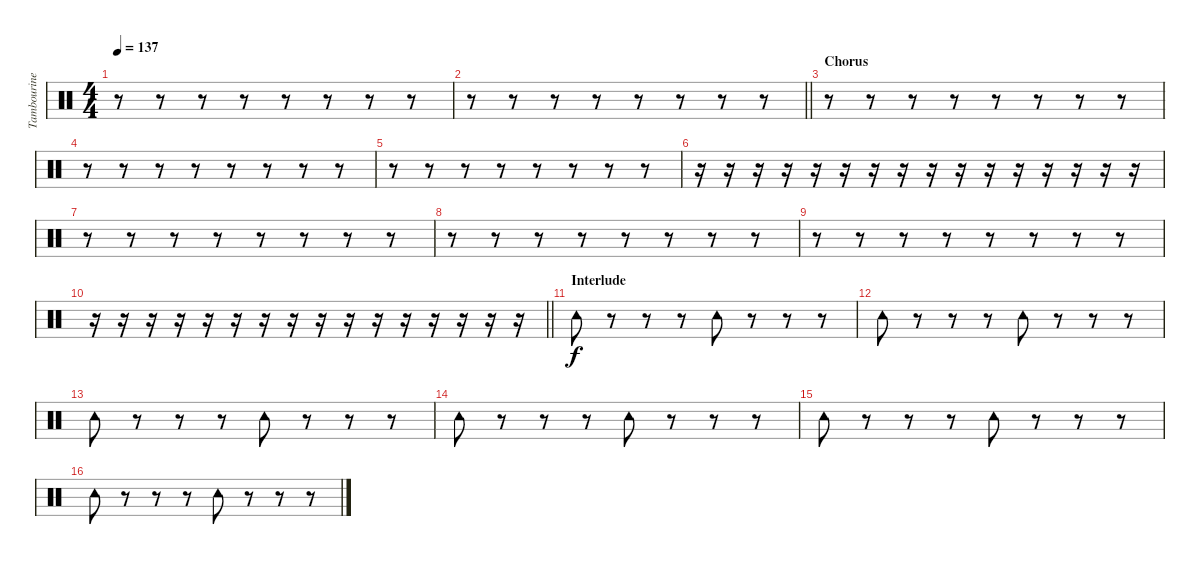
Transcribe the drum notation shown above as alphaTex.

\track ("Tambourine" "Tambourine") {instrument percussion}
\staff {score}
\articulation defaults
\ts (4 4)
\tempo 137
\clef neutral
\ks c
r.8{dy f} r.8 r.8 r.8 r.8 r.8 r.8 r.8 |
\barLineRight lightlight
r.8 r.8 r.8 r.8 r.8 r.8 r.8 r.8 |
\section ("" "Chorus")
r.8 r.8 r.8 r.8 r.8 r.8 r.8 r.8 |
r.8 r.8 r.8 r.8 r.8 r.8 r.8 r.8 |
r.8 r.8 r.8 r.8 r.8 r.8 r.8 r.8 |
r.16 r.16 r.16 r.16 r.16 r.16 r.16 r.16 r.16 r.16 r.16 r.16 r.16 r.16 r.16 r.16 |
r.8 r.8 r.8 r.8 r.8 r.8 r.8 r.8 |
r.8 r.8 r.8 r.8 r.8 r.8 r.8 r.8 |
r.8 r.8 r.8 r.8 r.8 r.8 r.8 r.8 |
\barLineRight lightlight
r.16 r.16 r.16 r.16 r.16 r.16 r.16 r.16 r.16 r.16 r.16 r.16 r.16 r.16 r.16 r.16 |
\section ("" "Interlude")
"Tambourine (hit)".8 r.8 r.8 r.8 "Tambourine (hit)".8 r.8 r.8 r.8 |
"Tambourine (hit)".8 r.8 r.8 r.8 "Tambourine (hit)".8 r.8 r.8 r.8 |
"Tambourine (hit)".8 r.8 r.8 r.8 "Tambourine (hit)".8 r.8 r.8 r.8 |
"Tambourine (hit)".8 r.8 r.8 r.8 "Tambourine (hit)".8 r.8 r.8 r.8 |
"Tambourine (hit)".8 r.8 r.8 r.8 "Tambourine (hit)".8 r.8 r.8 r.8 |
"Tambourine (hit)".8 r.8 r.8 r.8 "Tambourine (hit)".8 r.8 r.8 r.8
